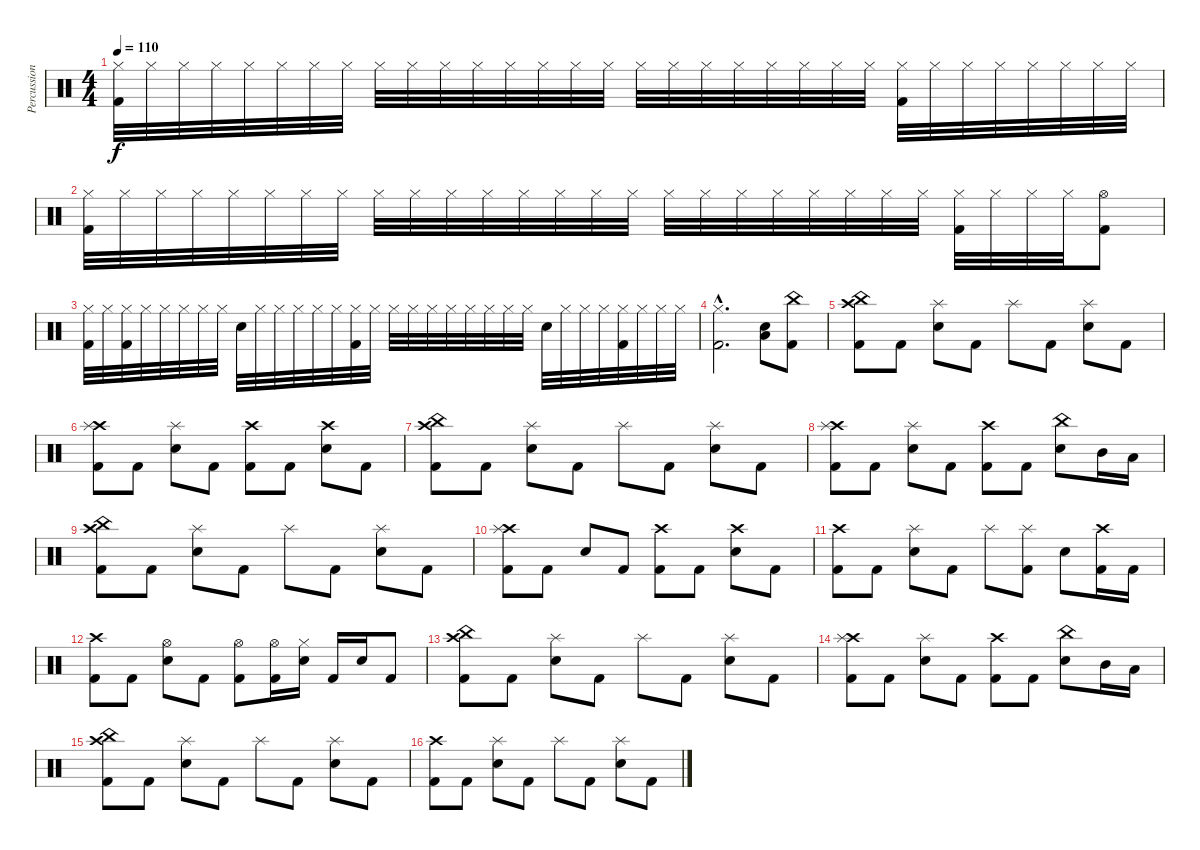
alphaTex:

\track ("Percussion" "Percussion") {instrument percussion}
\staff {score}
\articulation defaults
\ts (4 4)
\tempo 110
\clef neutral
\ks c
("Hi-Hat (closed)" "Kick (hit) 2").32{dy f} "Hi-Hat (closed)".32 "Hi-Hat (closed)".32 "Hi-Hat (closed)".32 "Hi-Hat (closed)".32 "Hi-Hat (closed)".32 "Hi-Hat (closed)".32 "Hi-Hat (closed)".32 "Hi-Hat (closed)".32 "Hi-Hat (closed)".32 "Hi-Hat (closed)".32 "Hi-Hat (closed)".32 "Hi-Hat (closed)".32 "Hi-Hat (closed)".32 "Hi-Hat (closed)".32 "Hi-Hat (closed)".32 "Hi-Hat (closed)".32 "Hi-Hat (closed)".32 "Hi-Hat (closed)".32 "Hi-Hat (closed)".32 "Hi-Hat (closed)".32 "Hi-Hat (closed)".32 "Hi-Hat (closed)".32 "Hi-Hat (closed)".32 ("Hi-Hat (closed)" "Kick (hit) 2").32 "Hi-Hat (closed)".32 "Hi-Hat (closed)".32 "Hi-Hat (closed)".32 "Hi-Hat (closed)".32 "Hi-Hat (closed)".32 "Hi-Hat (closed)".32 "Hi-Hat (closed)".32 |
("Hi-Hat (closed)" "Kick (hit) 2").32 "Hi-Hat (closed)".32 "Hi-Hat (closed)".32 "Hi-Hat (closed)".32 "Hi-Hat (closed)".32 "Hi-Hat (closed)".32 "Hi-Hat (closed)".32 "Hi-Hat (closed)".32 "Hi-Hat (closed)".32 "Hi-Hat (closed)".32 "Hi-Hat (closed)".32 "Hi-Hat (closed)".32 "Hi-Hat (closed)".32 "Hi-Hat (closed)".32 "Hi-Hat (closed)".32 "Hi-Hat (closed)".32 "Hi-Hat (closed)".32 "Hi-Hat (closed)".32 "Hi-Hat (closed)".32 "Hi-Hat (closed)".32 "Hi-Hat (closed)".32 "Hi-Hat (closed)".32 "Hi-Hat (closed)".32 "Hi-Hat (closed)".32 ("Hi-Hat (closed)" "Kick (hit) 2").32 "Hi-Hat (closed)".32 "Hi-Hat (closed)".32 "Hi-Hat (closed)".32 ("Hi-Hat (open)" "Kick (hit) 2").8 |
("Hi-Hat (closed)" "Kick (hit) 2").32 "Hi-Hat (closed)".32 ("Hi-Hat (closed)" "Kick (hit) 2").32 "Hi-Hat (closed)".32 "Hi-Hat (closed)".32 "Hi-Hat (closed)".32 "Hi-Hat (closed)".32 "Hi-Hat (closed)".32 "Snare (hit) 2".32 "Hi-Hat (closed)".32 "Hi-Hat (closed)".32 "Hi-Hat (closed)".32 "Hi-Hat (closed)".32 "Hi-Hat (closed)".32 ("Hi-Hat (closed)" "Kick (hit) 2").32 "Hi-Hat (closed)".32 "Hi-Hat (closed)".32 "Hi-Hat (closed)".32 "Hi-Hat (closed)".32 "Hi-Hat (closed)".32 "Hi-Hat (closed)".32 "Hi-Hat (closed)".32 "Hi-Hat (closed)".32 "Hi-Hat (closed)".32 "Snare (hit) 2".32 "Hi-Hat (closed)".32 "Hi-Hat (closed)".32 "Hi-Hat (closed)".32 ("Hi-Hat (closed)" "Kick (hit) 2").32 "Hi-Hat (closed)".32 "Hi-Hat (closed)".32 "Hi-Hat (closed)".32 |
("Hi-Hat (closed)"{hac} "Kick (hit) 2"{hac}).2{d} ("Snare (hit) 2" "Low Floor Tom (hit)").8 ("China (hit)" "Kick (hit) 2").8 |
("Crash high (hit)" "China (hit)" "Kick (hit) 2").8 "Kick (hit) 2".8 ("Splash (hit)" "Snare (hit) 2").8 "Kick (hit) 2".8 "Splash (hit)".8 "Kick (hit) 2".8 ("Splash (hit)" "Snare (hit) 2").8 "Kick (hit) 2".8 |
("Crash high (hit)" "Splash (hit)" "Kick (hit) 2").8 "Kick (hit) 2".8 ("Splash (hit)" "Snare (hit) 2").8 "Kick (hit) 2".8 ("Crash high (hit)" "Kick (hit) 2").8 "Kick (hit) 2".8 ("Crash high (hit)" "Snare (hit) 2").8 "Kick (hit) 2".8 |
("Crash high (hit)" "China (hit)" "Kick (hit) 2").8 "Kick (hit) 2".8 ("Splash (hit)" "Snare (hit) 2").8 "Kick (hit) 2".8 "Splash (hit)".8 "Kick (hit) 2".8 ("Splash (hit)" "Snare (hit) 2").8 "Kick (hit) 2".8 |
("Crash high (hit)" "Splash (hit)" "Kick (hit) 2").8 "Kick (hit) 2".8 ("Splash (hit)" "Snare (hit) 2").8 "Kick (hit) 2".8 ("Crash high (hit)" "Kick (hit) 2").8 "Kick (hit) 2".8 ("China (hit)" "Snare (hit) 2").8 "Mid Tom (hit)".16 "Low Floor Tom (hit)".16 |
("Crash high (hit)" "China (hit)" "Kick (hit) 2").8 "Kick (hit) 2".8 ("Splash (hit)" "Snare (hit) 2").8 "Kick (hit) 2".8 "Splash (hit)".8 "Kick (hit) 2".8 ("Splash (hit)" "Snare (hit) 2").8 "Kick (hit) 2".8 |
("Crash high (hit)" "Splash (hit)" "Kick (hit) 2").8 "Kick (hit) 2".8 "Snare (hit) 2".8 "Kick (hit) 2".8 ("Crash high (hit)" "Kick (hit) 2").8 "Kick (hit) 2".8 ("Crash high (hit)" "Snare (hit) 2").8 "Kick (hit) 2".8 |
("Crash high (hit)" "Kick (hit) 2").8 "Kick (hit) 2".8 ("Splash (hit)" "Snare (hit) 2").8 "Kick (hit) 2".8 "Splash (hit)".8 ("Splash (hit)" "Kick (hit) 2").8 "Snare (hit) 2".8 ("Crash high (hit)" "Kick (hit) 2").16 "Kick (hit) 2".16 |
("Crash high (hit)" "Kick (hit) 2").8 "Kick (hit) 2".8 ("Snare (hit) 2" "Hi-Hat (open)").8 "Kick (hit) 2".8 ("Hi-Hat (open)" "Kick (hit) 2").8 ("Hi-Hat (open)" "Kick (hit) 2").16 ("Snare (hit) 2" "Hi-Hat (closed)").16 "Kick (hit) 2".16 "Snare (hit) 2".16 "Kick (hit) 2".8 |
("Crash high (hit)" "China (hit)" "Kick (hit) 2").8 "Kick (hit) 2".8 ("Splash (hit)" "Snare (hit) 2").8 "Kick (hit) 2".8 "Splash (hit)".8 "Kick (hit) 2".8 ("Splash (hit)" "Snare (hit) 2").8 "Kick (hit) 2".8 |
("Crash high (hit)" "Splash (hit)" "Kick (hit) 2").8 "Kick (hit) 2".8 ("Splash (hit)" "Snare (hit) 2").8 "Kick (hit) 2".8 ("Crash high (hit)" "Kick (hit) 2").8 "Kick (hit) 2".8 ("China (hit)" "Snare (hit) 2").8 "Mid Tom (hit)".16 "Low Floor Tom (hit)".16 |
("Crash high (hit)" "China (hit)" "Kick (hit) 2").8 "Kick (hit) 2".8 ("Splash (hit)" "Snare (hit) 2").8 "Kick (hit) 2".8 "Splash (hit)".8 "Kick (hit) 2".8 ("Splash (hit)" "Snare (hit) 2").8 "Kick (hit) 2".8 |
("Crash high (hit)" "Kick (hit) 2").8 "Kick (hit) 2".8 ("Splash (hit)" "Snare (hit) 2").8 "Kick (hit) 2".8 "Splash (hit)".8 "Kick (hit) 2".8 ("Splash (hit)" "Snare (hit) 2").8 "Kick (hit) 2".8
